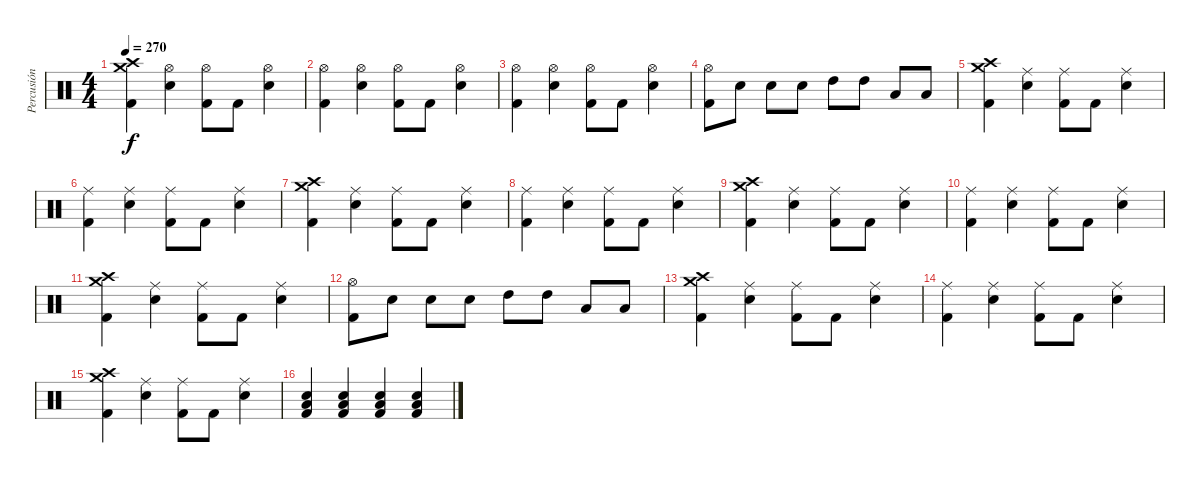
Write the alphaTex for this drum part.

\track ("Percusión" "Percusión") {instrument percussion}
\staff {score}
\articulation defaults
\ts (4 4)
\tempo 270
\clef neutral
\ks c
("Crash high (hit)" "Crash medium (hit)" "Kick (hit) 2").4{dy f} ("Hi-Hat (open)" "Electric Snare (hit)").4 ("Hi-Hat (open)" "Kick (hit) 2").8 "Kick (hit) 2".8 ("Hi-Hat (open)" "Electric Snare (hit)").4 |
("Hi-Hat (open)" "Kick (hit) 2").4 ("Hi-Hat (open)" "Electric Snare (hit)").4 ("Hi-Hat (open)" "Kick (hit) 2").8 "Kick (hit) 2".8 ("Hi-Hat (open)" "Electric Snare (hit)").4 |
("Hi-Hat (open)" "Kick (hit) 2").4 ("Hi-Hat (open)" "Electric Snare (hit)").4 ("Hi-Hat (open)" "Kick (hit) 2").8 "Kick (hit) 2".8 ("Hi-Hat (open)" "Electric Snare (hit)").4 |
("Hi-Hat (open)" "Kick (hit) 2").8 "Electric Snare (hit)".8 "Electric Snare (hit)".8 "Electric Snare (hit)".8 "High Tom (hit)".8 "High Tom (hit)".8 "Low Tom (hit)".8 "Low Tom (hit)".8 |
("Crash high (hit)" "Crash medium (hit)" "Kick (hit) 2").4 ("Ride (middle)" "Electric Snare (hit)").4 ("Ride (middle)" "Kick (hit) 2").8 "Kick (hit) 2".8 ("Ride (middle)" "Electric Snare (hit)").4 |
("Ride (middle)" "Kick (hit) 2").4 ("Ride (middle)" "Electric Snare (hit)").4 ("Ride (middle)" "Kick (hit) 2").8 "Kick (hit) 2".8 ("Ride (middle)" "Electric Snare (hit)").4 |
("Crash high (hit)" "Crash medium (hit)" "Kick (hit) 2").4 ("Ride (middle)" "Electric Snare (hit)").4 ("Ride (middle)" "Kick (hit) 2").8 "Kick (hit) 2".8 ("Ride (middle)" "Electric Snare (hit)").4 |
("Ride (middle)" "Kick (hit) 2").4 ("Ride (middle)" "Electric Snare (hit)").4 ("Ride (middle)" "Kick (hit) 2").8 "Kick (hit) 2".8 ("Ride (middle)" "Electric Snare (hit)").4 |
("Crash high (hit)" "Crash medium (hit)" "Kick (hit) 2").4 ("Ride (middle)" "Electric Snare (hit)").4 ("Ride (middle)" "Kick (hit) 2").8 "Kick (hit) 2".8 ("Ride (middle)" "Electric Snare (hit)").4 |
("Ride (middle)" "Kick (hit) 2").4 ("Ride (middle)" "Electric Snare (hit)").4 ("Ride (middle)" "Kick (hit) 2").8 "Kick (hit) 2".8 ("Ride (middle)" "Electric Snare (hit)").4 |
("Crash high (hit)" "Crash medium (hit)" "Kick (hit) 2").4 ("Ride (middle)" "Electric Snare (hit)").4 ("Ride (middle)" "Kick (hit) 2").8 "Kick (hit) 2".8 ("Ride (middle)" "Electric Snare (hit)").4 |
("Hi-Hat (open)" "Kick (hit) 2").8 "Electric Snare (hit)".8 "Electric Snare (hit)".8 "Electric Snare (hit)".8 "High Tom (hit)".8 "High Tom (hit)".8 "Low Tom (hit)".8 "Low Tom (hit)".8 |
("Crash high (hit)" "Crash medium (hit)" "Kick (hit) 2").4 ("Ride (middle)" "Electric Snare (hit)").4 ("Ride (middle)" "Kick (hit) 2").8 "Kick (hit) 2".8 ("Ride (middle)" "Electric Snare (hit)").4 |
("Ride (middle)" "Kick (hit) 2").4 ("Ride (middle)" "Electric Snare (hit)").4 ("Ride (middle)" "Kick (hit) 2").8 "Kick (hit) 2".8 ("Ride (middle)" "Electric Snare (hit)").4 |
("Crash high (hit)" "Crash medium (hit)" "Kick (hit) 2").4 ("Ride (middle)" "Electric Snare (hit)").4 ("Ride (middle)" "Kick (hit) 2").8 "Kick (hit) 2".8 ("Ride (middle)" "Electric Snare (hit)").4 |
("Electric Snare (hit)" "Low Floor Tom (hit)" "Kick (hit) 2").4 ("Electric Snare (hit)" "Low Floor Tom (hit)" "Kick (hit) 2").4 ("Electric Snare (hit)" "Low Floor Tom (hit)" "Kick (hit) 2").4 ("Electric Snare (hit)" "Low Floor Tom (hit)" "Kick (hit) 2").4
